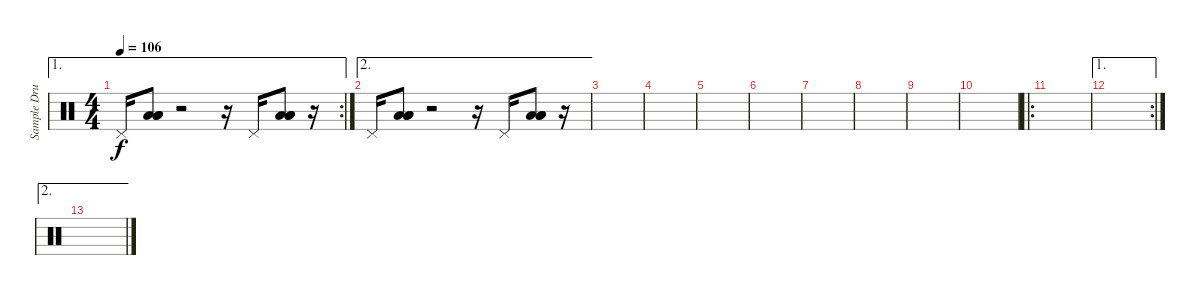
\track ("Sample Drums(Lethal)" "Sample Dru") {instrument percussion}
\staff {score}
\articulation defaults
\ae 1
\rc 2
\ts (4 4)
\tempo 106
\clef neutral
\ks c "Pedal Hi-Hat (hit)".16{dy f}
("Low Floor Tom (hit)" "Low Floor Tom (hit)" "Low Floor Tom (hit)").8 r.2 r.16 "Pedal Hi-Hat (hit)".16 ("Low Floor Tom (hit)" "Low Floor Tom (hit)" "Low Floor Tom (hit)").8 r.16 |
\ae 2 "Pedal Hi-Hat (hit)".16
("Low Floor Tom (hit)" "Low Floor Tom (hit)" "Low Floor Tom (hit)").8 r.2 r.16 "Pedal Hi-Hat (hit)".16 ("Low Floor Tom (hit)" "Low Floor Tom (hit)" "Low Floor Tom (hit)").8 r.16 |
|
|
|
|
|
|
|
|
\ro
|
\ae 1
\rc 2
|
\ae 2
